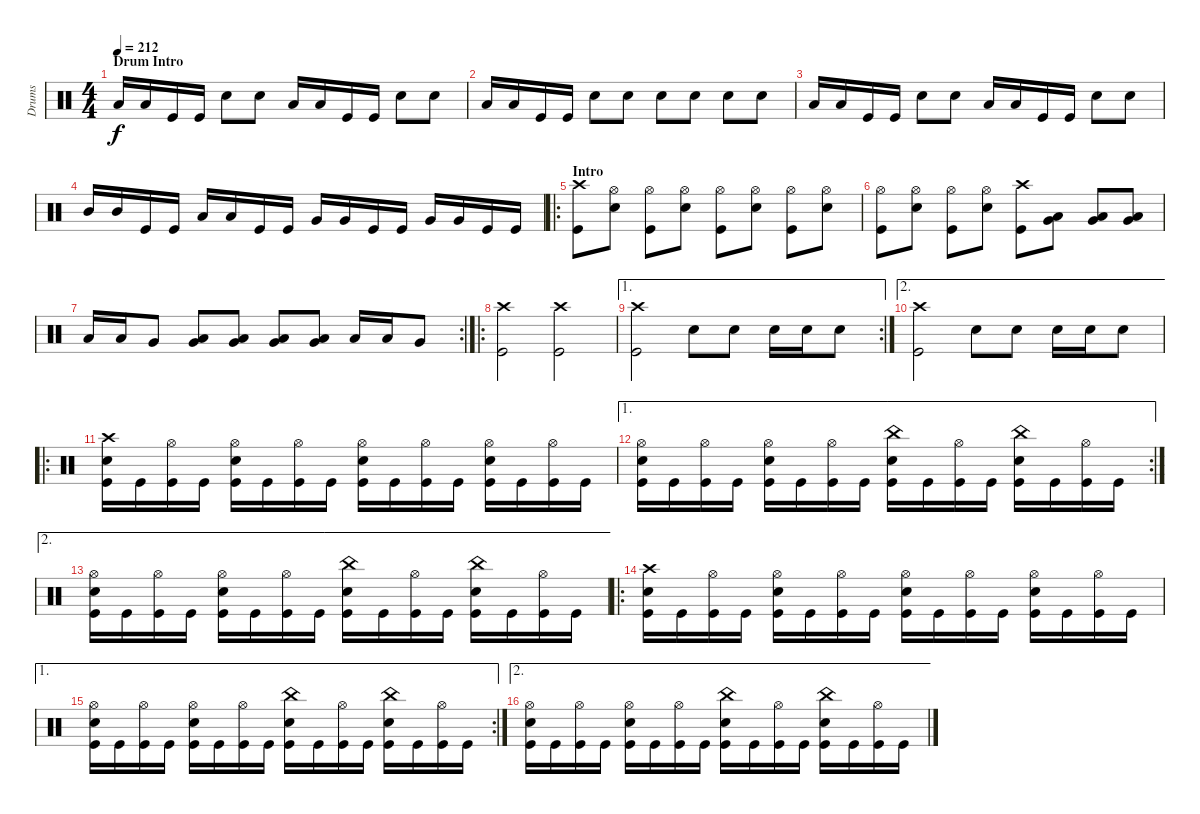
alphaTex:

\track ("Drums" "Drums") {instrument percussion}
\staff {score}
\articulation defaults
\ts (4 4)
\section ("" "Drum Intro")
\tempo 212
\clef neutral
\ks c "Low Tom (hit)".16{dy f} "Low Tom (hit)".16 "Kick (hit)".16 "Kick (hit)".16 "Snare (hit) 2".8 "Snare (hit) 2".8 "Low Tom (hit)".16 "Low Tom (hit)".16 "Kick (hit)".16 "Kick (hit)".16 "Snare (hit) 2".8 "Snare (hit) 2".8
|
"Low Tom (hit)".16 "Low Tom (hit)".16 "Kick (hit)".16 "Kick (hit)".16 "Snare (hit) 2".8 "Snare (hit) 2".8 "Snare (hit) 2".8 "Snare (hit) 2".8 "Snare (hit) 2".8 "Snare (hit) 2".8 |
"Low Tom (hit)".16 "Low Tom (hit)".16 "Kick (hit)".16 "Kick (hit)".16 "Snare (hit) 2".8 "Snare (hit) 2".8 "Low Tom (hit)".16 "Low Tom (hit)".16 "Kick (hit)".16 "Kick (hit)".16 "Snare (hit) 2".8 "Snare (hit) 2".8 |
"Mid Tom (hit)".16 "Mid Tom (hit)".16 "Kick (hit)".16 "Kick (hit)".16 "Low Tom (hit)".16 "Low Tom (hit)".16 "Kick (hit)".16 "Kick (hit)".16 "Very Low Tom (hit)".16 "Very Low Tom (hit)".16 "Kick (hit)".16 "Kick (hit)".16 "Very Low Tom (hit)".16 "Very Low Tom (hit)".16 "Kick (hit)".16 "Kick (hit)".16 |
\ro
\section ("" "Intro")
("Crash high (hit)" "Kick (hit)").8 ("Hi-Hat (open)" "Snare (hit) 2").8 ("Hi-Hat (open)" "Kick (hit)").8 ("Hi-Hat (open)" "Snare (hit) 2").8 ("Hi-Hat (open)" "Kick (hit)").8 ("Hi-Hat (open)" "Snare (hit) 2").8 ("Hi-Hat (open)" "Kick (hit)").8 ("Hi-Hat (open)" "Snare (hit) 2").8 |
("Hi-Hat (open)" "Kick (hit)").8 ("Hi-Hat (open)" "Snare (hit) 2").8 ("Hi-Hat (open)" "Kick (hit)").8 ("Hi-Hat (open)" "Snare (hit) 2").8 ("Crash high (hit)" "Kick (hit)").8 ("Low Tom (hit)" "Very Low Tom (hit)").8 ("Low Tom (hit)" "Very Low Tom (hit)").8 ("Low Tom (hit)" "Very Low Tom (hit)").8 |
\rc 2 "Low Tom (hit)".16 "Low Tom (hit)".16 "Very Low Tom (hit)".8
("Low Tom (hit)" "Very Low Tom (hit)").8 ("Low Tom (hit)" "Very Low Tom (hit)").8 ("Low Tom (hit)" "Very Low Tom (hit)").8 ("Low Tom (hit)" "Very Low Tom (hit)").8 "Low Tom (hit)".16 "Low Tom (hit)".16 "Very Low Tom (hit)".8 |
\ro
("Crash high (hit)" "Kick (hit)").2 ("Crash high (hit)" "Kick (hit)").2 |
\ae 1
\rc 2
("Crash high (hit)" "Kick (hit)").2 "Snare (hit) 2".8 "Snare (hit) 2".8 "Snare (hit) 2".16 "Snare (hit) 2".16 "Snare (hit) 2".8 |
\ae 2
("Crash high (hit)" "Kick (hit)").2 "Snare (hit) 2".8 "Snare (hit) 2".8 "Snare (hit) 2".16 "Snare (hit) 2".16 "Snare (hit) 2".8 |
\ro
("Crash high (hit)" "Snare (hit) 2" "Kick (hit)").16 "Kick (hit)".16 ("Hi-Hat (open)" "Kick (hit)").16 "Kick (hit)".16 ("Hi-Hat (open)" "Snare (hit) 2" "Kick (hit)").16 "Kick (hit)".16 ("Hi-Hat (open)" "Kick (hit)").16 "Kick (hit)".16 ("Hi-Hat (open)" "Snare (hit) 2" "Kick (hit)").16 "Kick (hit)".16 ("Hi-Hat (open)" "Kick (hit)").16 "Kick (hit)".16 ("Hi-Hat (open)" "Snare (hit) 2" "Kick (hit)").16 "Kick (hit)".16 ("Hi-Hat (open)" "Kick (hit)").16 "Kick (hit)".16 |
\ae 1
\rc 2
("Hi-Hat (open)" "Snare (hit) 2" "Kick (hit)").16 "Kick (hit)".16 ("Hi-Hat (open)" "Kick (hit)").16 "Kick (hit)".16 ("Hi-Hat (open)" "Snare (hit) 2" "Kick (hit)").16 "Kick (hit)".16 ("Hi-Hat (open)" "Kick (hit)").16 "Kick (hit)".16 ("China (hit)" "Snare (hit) 2" "Kick (hit)").16 "Kick (hit)".16 ("Hi-Hat (open)" "Kick (hit)").16 "Kick (hit)".16 ("China (hit)" "Snare (hit) 2" "Kick (hit)").16 "Kick (hit)".16 ("Hi-Hat (open)" "Kick (hit)").16 "Kick (hit)".16 |
\ae 2
("Hi-Hat (open)" "Snare (hit) 2" "Kick (hit)").16 "Kick (hit)".16 ("Hi-Hat (open)" "Kick (hit)").16 "Kick (hit)".16 ("Hi-Hat (open)" "Snare (hit) 2" "Kick (hit)").16 "Kick (hit)".16 ("Hi-Hat (open)" "Kick (hit)").16 "Kick (hit)".16 ("China (hit)" "Snare (hit) 2" "Kick (hit)").16 "Kick (hit)".16 ("Hi-Hat (open)" "Kick (hit)").16 "Kick (hit)".16 ("China (hit)" "Snare (hit) 2" "Kick (hit)").16 "Kick (hit)".16 ("Hi-Hat (open)" "Kick (hit)").16 "Kick (hit)".16 |
\ro
("Crash high (hit)" "Snare (hit) 2" "Kick (hit)").16 "Kick (hit)".16 ("Hi-Hat (open)" "Kick (hit)").16 "Kick (hit)".16 ("Hi-Hat (open)" "Snare (hit) 2" "Kick (hit)").16 "Kick (hit)".16 ("Hi-Hat (open)" "Kick (hit)").16 "Kick (hit)".16 ("Hi-Hat (open)" "Snare (hit) 2" "Kick (hit)").16 "Kick (hit)".16 ("Hi-Hat (open)" "Kick (hit)").16 "Kick (hit)".16 ("Hi-Hat (open)" "Snare (hit) 2" "Kick (hit)").16 "Kick (hit)".16 ("Hi-Hat (open)" "Kick (hit)").16 "Kick (hit)".16 |
\ae 1
\rc 2
("Hi-Hat (open)" "Snare (hit) 2" "Kick (hit)").16 "Kick (hit)".16 ("Hi-Hat (open)" "Kick (hit)").16 "Kick (hit)".16 ("Hi-Hat (open)" "Snare (hit) 2" "Kick (hit)").16 "Kick (hit)".16 ("Hi-Hat (open)" "Kick (hit)").16 "Kick (hit)".16 ("China (hit)" "Snare (hit) 2" "Kick (hit)").16 "Kick (hit)".16 ("Hi-Hat (open)" "Kick (hit)").16 "Kick (hit)".16 ("China (hit)" "Snare (hit) 2" "Kick (hit)").16 "Kick (hit)".16 ("Hi-Hat (open)" "Kick (hit)").16 "Kick (hit)".16 |
\ae 2
("Hi-Hat (open)" "Snare (hit) 2" "Kick (hit)").16 "Kick (hit)".16 ("Hi-Hat (open)" "Kick (hit)").16 "Kick (hit)".16 ("Hi-Hat (open)" "Snare (hit) 2" "Kick (hit)").16 "Kick (hit)".16 ("Hi-Hat (open)" "Kick (hit)").16 "Kick (hit)".16 ("China (hit)" "Snare (hit) 2" "Kick (hit)").16 "Kick (hit)".16 ("Hi-Hat (open)" "Kick (hit)").16 "Kick (hit)".16 ("China (hit)" "Snare (hit) 2" "Kick (hit)").16 "Kick (hit)".16 ("Hi-Hat (open)" "Kick (hit)").16 "Kick (hit)".16
